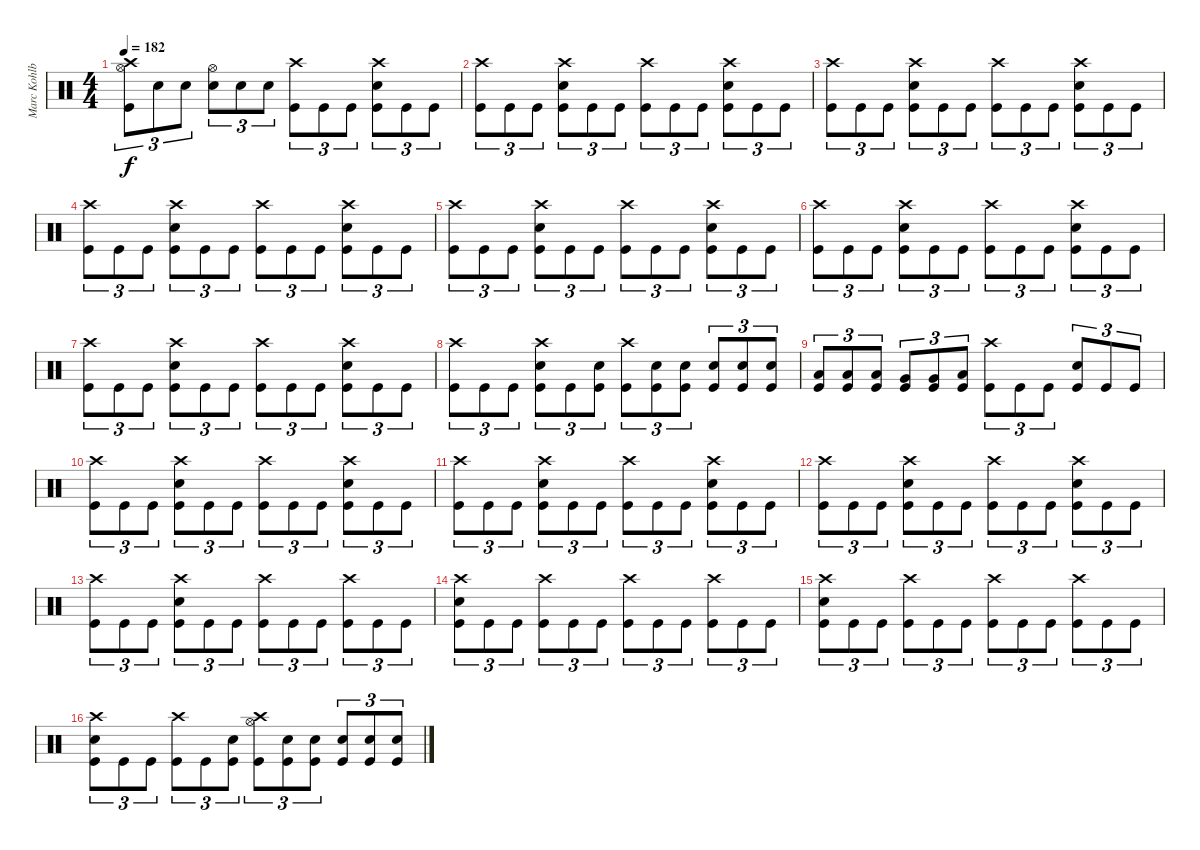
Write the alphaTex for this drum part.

\track ("Marc Kohlbry" "Marc Kohlb") {instrument percussion}
\staff {score}
\articulation defaults
\ts (4 4)
\tempo 182
\clef neutral
\ks c
("Crash high (hit)" "Hi-Hat (open)" "Kick (hit)").8{tu (3 2) dy f} "Electric Snare (hit)".8{tu (3 2)} "Electric Snare (hit)".8{tu (3 2)} ("Hi-Hat (open)" "Electric Snare (hit)").8{tu (3 2)} "Electric Snare (hit)".8{tu (3 2)} "Electric Snare (hit)".8{tu (3 2)} ("Crash high (hit)" "Kick (hit)").8{tu (3 2)} "Kick (hit)".8{tu (3 2)} "Kick (hit)".8{tu (3 2)} ("Crash high (hit)" "Electric Snare (hit)" "Kick (hit)").8{tu (3 2)} "Kick (hit)".8{tu (3 2)} "Kick (hit)".8{tu (3 2)} |
("Crash high (hit)" "Kick (hit)").8{tu (3 2)} "Kick (hit)".8{tu (3 2)} "Kick (hit)".8{tu (3 2)} ("Crash high (hit)" "Electric Snare (hit)" "Kick (hit)").8{tu (3 2)} "Kick (hit)".8{tu (3 2)} "Kick (hit)".8{tu (3 2)} ("Crash high (hit)" "Kick (hit)").8{tu (3 2)} "Kick (hit)".8{tu (3 2)} "Kick (hit)".8{tu (3 2)} ("Crash high (hit)" "Electric Snare (hit)" "Kick (hit)").8{tu (3 2)} "Kick (hit)".8{tu (3 2)} "Kick (hit)".8{tu (3 2)} |
("Crash high (hit)" "Kick (hit)").8{tu (3 2)} "Kick (hit)".8{tu (3 2)} "Kick (hit)".8{tu (3 2)} ("Crash high (hit)" "Electric Snare (hit)" "Kick (hit)").8{tu (3 2)} "Kick (hit)".8{tu (3 2)} "Kick (hit)".8{tu (3 2)} ("Crash high (hit)" "Kick (hit)").8{tu (3 2)} "Kick (hit)".8{tu (3 2)} "Kick (hit)".8{tu (3 2)} ("Crash high (hit)" "Electric Snare (hit)" "Kick (hit)").8{tu (3 2)} "Kick (hit)".8{tu (3 2)} "Kick (hit)".8{tu (3 2)} |
("Crash high (hit)" "Kick (hit)").8{tu (3 2)} "Kick (hit)".8{tu (3 2)} "Kick (hit)".8{tu (3 2)} ("Crash high (hit)" "Electric Snare (hit)" "Kick (hit)").8{tu (3 2)} "Kick (hit)".8{tu (3 2)} "Kick (hit)".8{tu (3 2)} ("Crash high (hit)" "Kick (hit)").8{tu (3 2)} "Kick (hit)".8{tu (3 2)} "Kick (hit)".8{tu (3 2)} ("Crash high (hit)" "Electric Snare (hit)" "Kick (hit)").8{tu (3 2)} "Kick (hit)".8{tu (3 2)} "Kick (hit)".8{tu (3 2)} |
("Crash high (hit)" "Kick (hit)").8{tu (3 2)} "Kick (hit)".8{tu (3 2)} "Kick (hit)".8{tu (3 2)} ("Crash high (hit)" "Electric Snare (hit)" "Kick (hit)").8{tu (3 2)} "Kick (hit)".8{tu (3 2)} "Kick (hit)".8{tu (3 2)} ("Crash high (hit)" "Kick (hit)").8{tu (3 2)} "Kick (hit)".8{tu (3 2)} "Kick (hit)".8{tu (3 2)} ("Crash high (hit)" "Electric Snare (hit)" "Kick (hit)").8{tu (3 2)} "Kick (hit)".8{tu (3 2)} "Kick (hit)".8{tu (3 2)} |
("Crash high (hit)" "Kick (hit)").8{tu (3 2)} "Kick (hit)".8{tu (3 2)} "Kick (hit)".8{tu (3 2)} ("Crash high (hit)" "Electric Snare (hit)" "Kick (hit)").8{tu (3 2)} "Kick (hit)".8{tu (3 2)} "Kick (hit)".8{tu (3 2)} ("Crash high (hit)" "Kick (hit)").8{tu (3 2)} "Kick (hit)".8{tu (3 2)} "Kick (hit)".8{tu (3 2)} ("Crash high (hit)" "Electric Snare (hit)" "Kick (hit)").8{tu (3 2)} "Kick (hit)".8{tu (3 2)} "Kick (hit)".8{tu (3 2)} |
("Crash high (hit)" "Kick (hit)").8{tu (3 2)} "Kick (hit)".8{tu (3 2)} "Kick (hit)".8{tu (3 2)} ("Crash high (hit)" "Electric Snare (hit)" "Kick (hit)").8{tu (3 2)} "Kick (hit)".8{tu (3 2)} "Kick (hit)".8{tu (3 2)} ("Crash high (hit)" "Kick (hit)").8{tu (3 2)} "Kick (hit)".8{tu (3 2)} "Kick (hit)".8{tu (3 2)} ("Crash high (hit)" "Electric Snare (hit)" "Kick (hit)").8{tu (3 2)} "Kick (hit)".8{tu (3 2)} "Kick (hit)".8{tu (3 2)} |
("Crash high (hit)" "Kick (hit)").8{tu (3 2)} "Kick (hit)".8{tu (3 2)} "Kick (hit)".8{tu (3 2)} ("Crash high (hit)" "Electric Snare (hit)" "Kick (hit)").8{tu (3 2)} "Kick (hit)".8{tu (3 2)} ("Electric Snare (hit)" "Kick (hit)").8{tu (3 2)} ("Crash high (hit)" "Kick (hit)").8{tu (3 2)} ("Electric Snare (hit)" "Kick (hit)").8{tu (3 2)} ("Electric Snare (hit)" "Kick (hit)").8{tu (3 2)} ("Electric Snare (hit)" "Kick (hit)").8{tu (3 2)} ("Electric Snare (hit)" "Kick (hit)").8{tu (3 2)} ("Electric Snare (hit)" "Kick (hit)").8{tu (3 2)} |
("Low Tom (hit)" "Kick (hit)").8{tu (3 2)} ("Low Tom (hit)" "Kick (hit)").8{tu (3 2)} ("Low Tom (hit)" "Kick (hit)").8{tu (3 2)} ("Very Low Tom (hit)" "Kick (hit)").8{tu (3 2)} ("Very Low Tom (hit)" "Kick (hit)").8{tu (3 2)} ("Low Floor Tom (hit)" "Kick (hit)").8{tu (3 2)} ("Crash high (hit)" "Kick (hit)").8{tu (3 2)} "Kick (hit)".8{tu (3 2)} "Kick (hit)".8{tu (3 2)} ("Electric Snare (hit)" "Kick (hit)").8{tu (3 2)} "Kick (hit)".8{tu (3 2)} "Kick (hit)".8{tu (3 2)} |
("Crash high (hit)" "Kick (hit)").8{tu (3 2)} "Kick (hit)".8{tu (3 2)} "Kick (hit)".8{tu (3 2)} ("Crash high (hit)" "Electric Snare (hit)" "Kick (hit)").8{tu (3 2)} "Kick (hit)".8{tu (3 2)} "Kick (hit)".8{tu (3 2)} ("Crash high (hit)" "Kick (hit)").8{tu (3 2)} "Kick (hit)".8{tu (3 2)} "Kick (hit)".8{tu (3 2)} ("Crash high (hit)" "Electric Snare (hit)" "Kick (hit)").8{tu (3 2)} "Kick (hit)".8{tu (3 2)} "Kick (hit)".8{tu (3 2)} |
("Crash high (hit)" "Kick (hit)").8{tu (3 2)} "Kick (hit)".8{tu (3 2)} "Kick (hit)".8{tu (3 2)} ("Crash high (hit)" "Electric Snare (hit)" "Kick (hit)").8{tu (3 2)} "Kick (hit)".8{tu (3 2)} "Kick (hit)".8{tu (3 2)} ("Crash high (hit)" "Kick (hit)").8{tu (3 2)} "Kick (hit)".8{tu (3 2)} "Kick (hit)".8{tu (3 2)} ("Crash high (hit)" "Electric Snare (hit)" "Kick (hit)").8{tu (3 2)} "Kick (hit)".8{tu (3 2)} "Kick (hit)".8{tu (3 2)} |
("Crash high (hit)" "Kick (hit)").8{tu (3 2)} "Kick (hit)".8{tu (3 2)} "Kick (hit)".8{tu (3 2)} ("Crash high (hit)" "Electric Snare (hit)" "Kick (hit)").8{tu (3 2)} "Kick (hit)".8{tu (3 2)} "Kick (hit)".8{tu (3 2)} ("Crash high (hit)" "Kick (hit)").8{tu (3 2)} "Kick (hit)".8{tu (3 2)} "Kick (hit)".8{tu (3 2)} ("Crash high (hit)" "Electric Snare (hit)" "Kick (hit)").8{tu (3 2)} "Kick (hit)".8{tu (3 2)} "Kick (hit)".8{tu (3 2)} |
("Crash high (hit)" "Kick (hit)").8{tu (3 2)} "Kick (hit)".8{tu (3 2)} "Kick (hit)".8{tu (3 2)} ("Crash high (hit)" "Electric Snare (hit)" "Kick (hit)").8{tu (3 2)} "Kick (hit)".8{tu (3 2)} "Kick (hit)".8{tu (3 2)} ("Crash high (hit)" "Kick (hit)").8{tu (3 2)} "Kick (hit)".8{tu (3 2)} "Kick (hit)".8{tu (3 2)} ("Crash high (hit)" "Kick (hit)").8{tu (3 2)} "Kick (hit)".8{tu (3 2)} "Kick (hit)".8{tu (3 2)} |
("Crash high (hit)" "Electric Snare (hit)" "Kick (hit)").8{tu (3 2)} "Kick (hit)".8{tu (3 2)} "Kick (hit)".8{tu (3 2)} ("Crash high (hit)" "Kick (hit)").8{tu (3 2)} "Kick (hit)".8{tu (3 2)} "Kick (hit)".8{tu (3 2)} ("Crash high (hit)" "Kick (hit)").8{tu (3 2)} "Kick (hit)".8{tu (3 2)} "Kick (hit)".8{tu (3 2)} ("Crash high (hit)" "Kick (hit)").8{tu (3 2)} "Kick (hit)".8{tu (3 2)} "Kick (hit)".8{tu (3 2)} |
("Crash high (hit)" "Electric Snare (hit)" "Kick (hit)").8{tu (3 2)} "Kick (hit)".8{tu (3 2)} "Kick (hit)".8{tu (3 2)} ("Crash high (hit)" "Kick (hit)").8{tu (3 2)} "Kick (hit)".8{tu (3 2)} "Kick (hit)".8{tu (3 2)} ("Crash high (hit)" "Kick (hit)").8{tu (3 2)} "Kick (hit)".8{tu (3 2)} "Kick (hit)".8{tu (3 2)} ("Crash high (hit)" "Kick (hit)").8{tu (3 2)} "Kick (hit)".8{tu (3 2)} "Kick (hit)".8{tu (3 2)} |
("Crash high (hit)" "Electric Snare (hit)" "Kick (hit)").8{tu (3 2)} "Kick (hit)".8{tu (3 2)} "Kick (hit)".8{tu (3 2)} ("Crash high (hit)" "Kick (hit)").8{tu (3 2)} "Kick (hit)".8{tu (3 2)} ("Electric Snare (hit)" "Kick (hit)").8{tu (3 2)} ("Crash high (hit)" "Hi-Hat (open)" "Kick (hit)").8{tu (3 2)} ("Electric Snare (hit)" "Kick (hit)").8{tu (3 2)} ("Electric Snare (hit)" "Kick (hit)").8{tu (3 2)} ("Electric Snare (hit)" "Kick (hit)").8{tu (3 2)} ("Electric Snare (hit)" "Kick (hit)").8{tu (3 2)} ("Electric Snare (hit)" "Kick (hit)").8{tu (3 2)}
